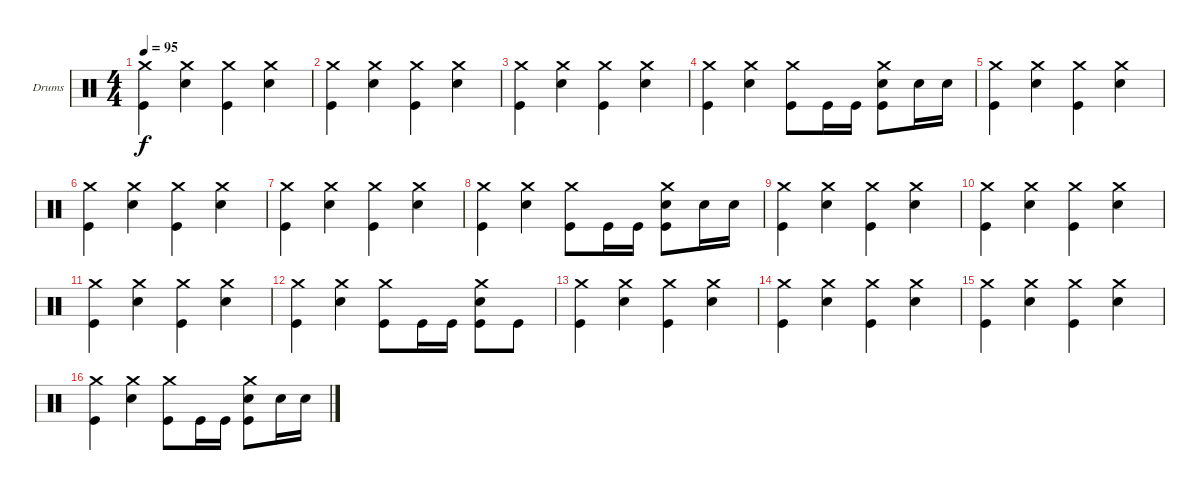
\bracketExtendMode groupsimilarinstruments
\firstSystemTrackNameOrientation horizontal
\otherSystemsTrackNameOrientation horizontal
\track ("Drumkit" "Drums") {instrument percussion}
\staff {score}
\articulation defaults
\ts (4 4)
\tempo 95
\clef neutral
\ks c
("Crash medium (hit)" "Kick (hit)").4{dy f} ("Crash medium (hit)" "Snare (hit) 2").4 ("Crash medium (hit)" "Kick (hit)").4 ("Crash medium (hit)" "Snare (hit) 2").4 |
("Crash medium (hit)" "Kick (hit)").4 ("Crash medium (hit)" "Snare (hit) 2").4 ("Crash medium (hit)" "Kick (hit)").4 ("Crash medium (hit)" "Snare (hit) 2").4 |
("Crash medium (hit)" "Kick (hit)").4 ("Crash medium (hit)" "Snare (hit) 2").4 ("Crash medium (hit)" "Kick (hit)").4 ("Crash medium (hit)" "Snare (hit) 2").4 |
("Crash medium (hit)" "Kick (hit)").4 ("Crash medium (hit)" "Snare (hit) 2").4 ("Crash medium (hit)" "Kick (hit)").8 "Kick (hit)".16 "Kick (hit)".16 ("Crash medium (hit)" "Snare (hit) 2" "Kick (hit)").8 "Snare (hit) 2".16 "Snare (hit) 2".16 |
("Crash medium (hit)" "Kick (hit)").4 ("Crash medium (hit)" "Snare (hit) 2").4 ("Crash medium (hit)" "Kick (hit)").4 ("Crash medium (hit)" "Snare (hit) 2").4 |
("Crash medium (hit)" "Kick (hit)").4 ("Crash medium (hit)" "Snare (hit) 2").4 ("Crash medium (hit)" "Kick (hit)").4 ("Crash medium (hit)" "Snare (hit) 2").4 |
("Crash medium (hit)" "Kick (hit)").4 ("Crash medium (hit)" "Snare (hit) 2").4 ("Crash medium (hit)" "Kick (hit)").4 ("Crash medium (hit)" "Snare (hit) 2").4 |
("Crash medium (hit)" "Kick (hit)").4 ("Crash medium (hit)" "Snare (hit) 2").4 ("Crash medium (hit)" "Kick (hit)").8 "Kick (hit)".16 "Kick (hit)".16 ("Crash medium (hit)" "Snare (hit) 2" "Kick (hit)").8 "Snare (hit) 2".16 "Snare (hit) 2".16 |
("Crash medium (hit)" "Kick (hit)").4 ("Crash medium (hit)" "Snare (hit) 2").4 ("Crash medium (hit)" "Kick (hit)").4 ("Crash medium (hit)" "Snare (hit) 2").4 |
("Crash medium (hit)" "Kick (hit)").4 ("Crash medium (hit)" "Snare (hit) 2").4 ("Crash medium (hit)" "Kick (hit)").4 ("Crash medium (hit)" "Snare (hit) 2").4 |
("Crash medium (hit)" "Kick (hit)").4 ("Crash medium (hit)" "Snare (hit) 2").4 ("Crash medium (hit)" "Kick (hit)").4 ("Crash medium (hit)" "Snare (hit) 2").4 |
("Crash medium (hit)" "Kick (hit)").4 ("Crash medium (hit)" "Snare (hit) 2").4 ("Crash medium (hit)" "Kick (hit)").8 "Kick (hit)".16 "Kick (hit)".16 ("Crash medium (hit)" "Snare (hit) 2" "Kick (hit)").8 "Kick (hit)".8 |
("Crash medium (hit)" "Kick (hit)").4 ("Crash medium (hit)" "Snare (hit) 2").4 ("Crash medium (hit)" "Kick (hit)").4 ("Crash medium (hit)" "Snare (hit) 2").4 |
("Crash medium (hit)" "Kick (hit)").4 ("Crash medium (hit)" "Snare (hit) 2").4 ("Crash medium (hit)" "Kick (hit)").4 ("Crash medium (hit)" "Snare (hit) 2").4 |
("Crash medium (hit)" "Kick (hit)").4 ("Crash medium (hit)" "Snare (hit) 2").4 ("Crash medium (hit)" "Kick (hit)").4 ("Crash medium (hit)" "Snare (hit) 2").4 |
("Crash medium (hit)" "Kick (hit)").4 ("Crash medium (hit)" "Snare (hit) 2").4 ("Crash medium (hit)" "Kick (hit)").8 "Kick (hit)".16 "Kick (hit)".16 ("Crash medium (hit)" "Snare (hit) 2" "Kick (hit)").8 "Snare (hit) 2".16 "Snare (hit) 2".16
